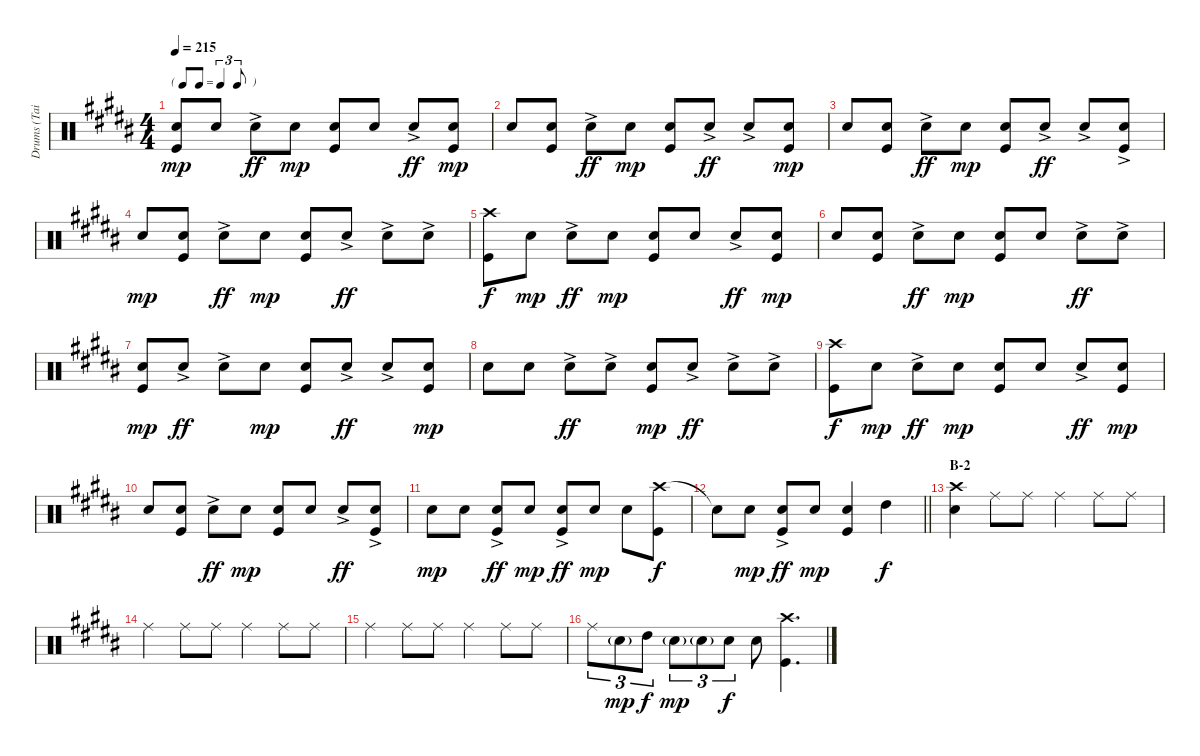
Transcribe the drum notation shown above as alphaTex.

\track ("Drums (Tainaka Ritsu)" "Drums (Tai") {instrument percussion}
\staff {score}
\articulation defaults
\ts (4 4)
\tf triplet8th
\tempo 215
\clef neutral
\ks b
("Snare (hit) 2" "Kick (hit)").8{dy mp} "Snare (hit) 2".8 "Snare (hit) 2"{ac}.8{dy ff} "Snare (hit) 2".8{dy mp} ("Snare (hit) 2" "Kick (hit)").8 "Snare (hit) 2".8 "Snare (hit) 2"{ac}.8{dy ff} ("Snare (hit) 2" "Kick (hit)").8{dy mp} |
"Snare (hit) 2".8 ("Snare (hit) 2" "Kick (hit)").8 "Snare (hit) 2"{ac}.8{dy ff} "Snare (hit) 2".8{dy mp} ("Snare (hit) 2" "Kick (hit)").8 "Snare (hit) 2"{ac}.8{dy ff} "Snare (hit) 2"{ac}.8 ("Snare (hit) 2" "Kick (hit)").8{dy mp} |
"Snare (hit) 2".8 ("Snare (hit) 2" "Kick (hit)").8 "Snare (hit) 2"{ac}.8{dy ff} "Snare (hit) 2".8{dy mp} ("Snare (hit) 2" "Kick (hit)").8 "Snare (hit) 2"{ac}.8{dy ff} "Snare (hit) 2"{ac}.8 ("Snare (hit) 2"{ac} "Kick (hit)").8 |
"Snare (hit) 2".8{dy mp} ("Snare (hit) 2" "Kick (hit)").8 "Snare (hit) 2"{ac}.8{dy ff} "Snare (hit) 2".8{dy mp} ("Snare (hit) 2" "Kick (hit)").8 "Snare (hit) 2"{ac}.8{dy ff} "Snare (hit) 2"{ac}.8 "Snare (hit) 2"{ac}.8 |
("Crash high (hit)" "Kick (hit)").8{dy f} "Snare (hit) 2".8{dy mp} "Snare (hit) 2"{ac}.8{dy ff} "Snare (hit) 2".8{dy mp} ("Snare (hit) 2" "Kick (hit)").8 "Snare (hit) 2".8 "Snare (hit) 2"{ac}.8{dy ff} ("Snare (hit) 2" "Kick (hit)").8{dy mp} |
"Snare (hit) 2".8 ("Snare (hit) 2" "Kick (hit)").8 "Snare (hit) 2"{ac}.8{dy ff} "Snare (hit) 2".8{dy mp} ("Snare (hit) 2" "Kick (hit)").8 "Snare (hit) 2".8 "Snare (hit) 2"{ac}.8{dy ff} "Snare (hit) 2"{ac}.8 |
("Snare (hit) 2" "Kick (hit)").8{dy mp} "Snare (hit) 2"{ac}.8{dy ff} "Snare (hit) 2"{ac}.8 "Snare (hit) 2".8{dy mp} ("Snare (hit) 2" "Kick (hit)").8 "Snare (hit) 2"{ac}.8{dy ff} "Snare (hit) 2"{ac}.8 ("Snare (hit) 2" "Kick (hit)").8{dy mp} |
"Snare (hit) 2".8 "Snare (hit) 2".8 "Snare (hit) 2"{ac}.8{dy ff} "Snare (hit) 2"{ac}.8 ("Snare (hit) 2" "Kick (hit)").8{dy mp} "Snare (hit) 2"{ac}.8{dy ff} "Snare (hit) 2"{ac}.8 "Snare (hit) 2"{ac}.8 |
("Crash high (hit)" "Kick (hit)").8{dy f} "Snare (hit) 2".8{dy mp} "Snare (hit) 2"{ac}.8{dy ff} "Snare (hit) 2".8{dy mp} ("Snare (hit) 2" "Kick (hit)").8 "Snare (hit) 2".8 "Snare (hit) 2"{ac}.8{dy ff} ("Snare (hit) 2" "Kick (hit)").8{dy mp} |
"Snare (hit) 2".8 ("Snare (hit) 2" "Kick (hit)").8 "Snare (hit) 2"{ac}.8{dy ff} "Snare (hit) 2".8{dy mp} ("Snare (hit) 2" "Kick (hit)").8 "Snare (hit) 2".8 "Snare (hit) 2"{ac}.8{dy ff} ("Snare (hit) 2"{ac} "Kick (hit)").8 |
"Snare (hit) 2".8{dy mp} "Snare (hit) 2".8 ("Snare (hit) 2"{ac} "Kick (hit)").8{dy ff} "Snare (hit) 2".8{dy mp} ("Snare (hit) 2"{ac} "Kick (hit)").8{dy ff} "Snare (hit) 2".8{dy mp} "Snare (hit) 2".8 ("Crash high (hit)" "Kick (hit)").8{dy f} |
\barLineRight lightlight "Snare (hit)"{t}.8 "Snare (hit) 2".8{dy mp}
("Snare (hit) 2"{ac} "Kick (hit)").8{dy ff} "Snare (hit) 2".8{dy mp} ("Snare (hit) 2" "Kick (hit)").4 "High Tom (hit)".4{dy f} |
\section ("" "B-2")
("Crash high (hit)" "Snare (hit) 2").4 "Ride (middle)".8 "Ride (middle)".8 "Ride (middle)".4 "Ride (middle)".8 "Ride (middle)".8 |
"Ride (middle)".4 "Ride (middle)".8 "Ride (middle)".8 "Ride (middle)".4 "Ride (middle)".8 "Ride (middle)".8 |
"Ride (middle)".4 "Ride (middle)".8 "Ride (middle)".8 "Ride (middle)".4 "Ride (middle)".8 "Ride (middle)".8 |
"Ride (middle)".8{tu (3 2)} "Snare (hit) 2"{g}.8{tu (3 2) dy mp} "High Tom (hit)".8{tu (3 2) dy f} "Snare (hit) 2"{g}.8{tu (3 2) dy mp} "Snare (hit) 2"{g}.8{tu (3 2)} "Snare (hit) 2".8{tu (3 2) dy f} "Snare (hit) 2".8 ("Crash high (hit)" "Kick (hit)").4{d}
